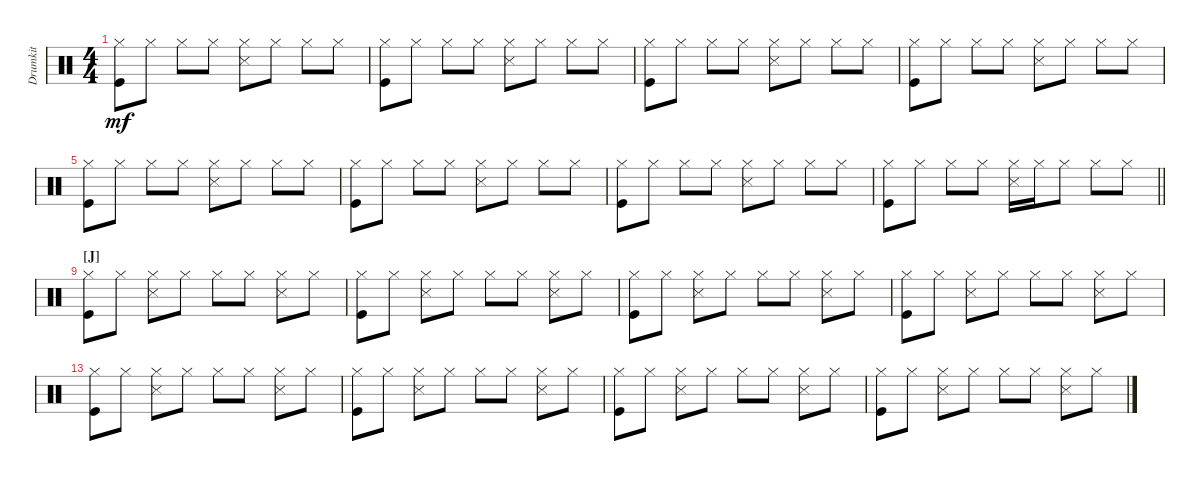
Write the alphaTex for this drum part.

\bracketExtendMode groupsimilarinstruments
\multiTrackTrackNamePolicy hidden
\firstSystemTrackNameMode fullname
\otherSystemsTrackNameMode fullname
\otherSystemsTrackNameOrientation horizontal
\defaultBarNumberDisplay FirstOfSystem
\track ("Drumkit" "Drums") {multiBarRest instrument percussion}
\staff {score}
\articulation defaults
\ts (4 4)
\tempo (150 hide)
\clef neutral
\ks c
("Hi-Hat (closed)" "Kick (hit)").8{dy mf} "Hi-Hat (closed)".8 "Hi-Hat (closed)".8 "Hi-Hat (closed)".8 ("Hi-Hat (closed)" "Snare (side stick) 3").8 "Hi-Hat (closed)".8 "Hi-Hat (closed)".8 "Hi-Hat (closed)".8 |
("Hi-Hat (closed)" "Kick (hit)").8 "Hi-Hat (closed)".8 "Hi-Hat (closed)".8 "Hi-Hat (closed)".8 ("Hi-Hat (closed)" "Snare (side stick) 3").8 "Hi-Hat (closed)".8 "Hi-Hat (closed)".8 "Hi-Hat (closed)".8 |
("Hi-Hat (closed)" "Kick (hit)").8 "Hi-Hat (closed)".8 "Hi-Hat (closed)".8 "Hi-Hat (closed)".8 ("Hi-Hat (closed)" "Snare (side stick) 3").8 "Hi-Hat (closed)".8 "Hi-Hat (closed)".8 "Hi-Hat (closed)".8 |
("Hi-Hat (closed)" "Kick (hit)").8 "Hi-Hat (closed)".8 "Hi-Hat (closed)".8 "Hi-Hat (closed)".8 ("Hi-Hat (closed)" "Snare (side stick) 3").8 "Hi-Hat (closed)".8 "Hi-Hat (closed)".8 "Hi-Hat (closed)".8 |
("Hi-Hat (closed)" "Kick (hit)").8 "Hi-Hat (closed)".8 "Hi-Hat (closed)".8 "Hi-Hat (closed)".8 ("Hi-Hat (closed)" "Snare (side stick) 3").8 "Hi-Hat (closed)".8 "Hi-Hat (closed)".8 "Hi-Hat (closed)".8 |
("Hi-Hat (closed)" "Kick (hit)").8 "Hi-Hat (closed)".8 "Hi-Hat (closed)".8 "Hi-Hat (closed)".8 ("Hi-Hat (closed)" "Snare (side stick) 3").8 "Hi-Hat (closed)".8 "Hi-Hat (closed)".8 "Hi-Hat (closed)".8 |
("Hi-Hat (closed)" "Kick (hit)").8 "Hi-Hat (closed)".8 "Hi-Hat (closed)".8 "Hi-Hat (closed)".8 ("Hi-Hat (closed)" "Snare (side stick) 3").8 "Hi-Hat (closed)".8 "Hi-Hat (closed)".8 "Hi-Hat (closed)".8 |
\barLineRight lightlight
("Hi-Hat (closed)" "Kick (hit)").8 "Hi-Hat (closed)".8 "Hi-Hat (closed)".8 "Hi-Hat (closed)".8 ("Hi-Hat (closed)" "Snare (side stick) 3").16 "Hi-Hat (closed)".16 "Hi-Hat (closed)".8 "Hi-Hat (closed)".8 "Hi-Hat (closed)".8 |
\section ("J" "")
("Hi-Hat (closed)" "Kick (hit)").8 "Hi-Hat (closed)".8 ("Hi-Hat (closed)" "Snare (side stick) 3").8 "Hi-Hat (closed)".8 "Hi-Hat (closed)".8 "Hi-Hat (closed)".8 ("Hi-Hat (closed)" "Snare (side stick) 3").8 "Hi-Hat (closed)".8 |
("Hi-Hat (closed)" "Kick (hit)").8 "Hi-Hat (closed)".8 ("Hi-Hat (closed)" "Snare (side stick) 3").8 "Hi-Hat (closed)".8 "Hi-Hat (closed)".8 "Hi-Hat (closed)".8 ("Hi-Hat (closed)" "Snare (side stick) 3").8 "Hi-Hat (closed)".8 |
("Hi-Hat (closed)" "Kick (hit)").8 "Hi-Hat (closed)".8 ("Hi-Hat (closed)" "Snare (side stick) 3").8 "Hi-Hat (closed)".8 "Hi-Hat (closed)".8 "Hi-Hat (closed)".8 ("Hi-Hat (closed)" "Snare (side stick) 3").8 "Hi-Hat (closed)".8 |
("Hi-Hat (closed)" "Kick (hit)").8 "Hi-Hat (closed)".8 ("Hi-Hat (closed)" "Snare (side stick) 3").8 "Hi-Hat (closed)".8 "Hi-Hat (closed)".8 "Hi-Hat (closed)".8 ("Hi-Hat (closed)" "Snare (side stick) 3").8 "Hi-Hat (closed)".8 |
("Hi-Hat (closed)" "Kick (hit)").8 "Hi-Hat (closed)".8 ("Hi-Hat (closed)" "Snare (side stick) 3").8 "Hi-Hat (closed)".8 "Hi-Hat (closed)".8 "Hi-Hat (closed)".8 ("Hi-Hat (closed)" "Snare (side stick) 3").8 "Hi-Hat (closed)".8 |
("Hi-Hat (closed)" "Kick (hit)").8 "Hi-Hat (closed)".8 ("Hi-Hat (closed)" "Snare (side stick) 3").8 "Hi-Hat (closed)".8 "Hi-Hat (closed)".8 "Hi-Hat (closed)".8 ("Hi-Hat (closed)" "Snare (side stick) 3").8 "Hi-Hat (closed)".8 |
("Hi-Hat (closed)" "Kick (hit)").8 "Hi-Hat (closed)".8 ("Hi-Hat (closed)" "Snare (side stick) 3").8 "Hi-Hat (closed)".8 "Hi-Hat (closed)".8 "Hi-Hat (closed)".8 ("Hi-Hat (closed)" "Snare (side stick) 3").8 "Hi-Hat (closed)".8 |
("Hi-Hat (closed)" "Kick (hit)").8 "Hi-Hat (closed)".8 ("Hi-Hat (closed)" "Snare (side stick) 3").8 "Hi-Hat (closed)".8 "Hi-Hat (closed)".8 "Hi-Hat (closed)".8 ("Hi-Hat (closed)" "Snare (side stick) 3").8 "Hi-Hat (closed)".8
